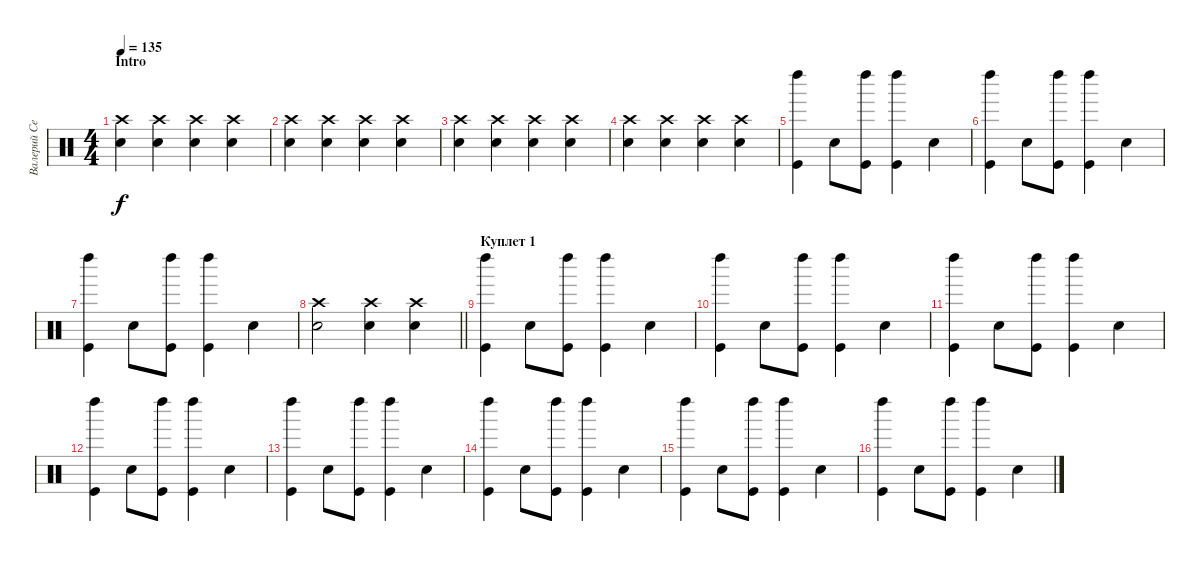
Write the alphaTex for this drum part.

\track ("Валерий Северин" "Валерий Се") {instrument percussion}
\staff {score}
\articulation defaults
\ts (4 4)
\section ("" "Intro")
\tempo 135
\clef neutral
\ks c
("Snare (hit) 2" "Crash high (hit)").4{dy f} ("Snare (hit) 2" "Crash high (hit)").4 ("Snare (hit) 2" "Crash high (hit)").4 ("Snare (hit) 2" "Crash high (hit)").4 |
("Snare (hit) 2" "Crash high (hit)").4 ("Snare (hit) 2" "Crash high (hit)").4 ("Snare (hit) 2" "Crash high (hit)").4 ("Snare (hit) 2" "Crash high (hit)").4 |
("Snare (hit) 2" "Crash high (hit)").4 ("Snare (hit) 2" "Crash high (hit)").4 ("Snare (hit) 2" "Crash high (hit)").4 ("Snare (hit) 2" "Crash high (hit)").4 |
("Snare (hit) 2" "Crash high (hit)").4 ("Snare (hit) 2" "Crash high (hit)").4 ("Snare (hit) 2" "Crash high (hit)").4 ("Snare (hit) 2" "Crash high (hit)").4 |
("Kick (hit)" "Left Maraca (hit)").4 "Snare (hit) 2".8 ("Kick (hit)" "Left Maraca (hit)").8 ("Kick (hit)" "Left Maraca (hit)").4 "Snare (hit) 2".4 |
("Kick (hit)" "Left Maraca (hit)").4 "Snare (hit) 2".8 ("Kick (hit)" "Left Maraca (hit)").8 ("Kick (hit)" "Left Maraca (hit)").4 "Snare (hit) 2".4 |
("Kick (hit)" "Left Maraca (hit)").4 "Snare (hit) 2".8 ("Kick (hit)" "Left Maraca (hit)").8 ("Kick (hit)" "Left Maraca (hit)").4 "Snare (hit) 2".4 |
\barLineRight lightlight
("Snare (hit) 2" "Crash high (hit)").2 ("Snare (hit) 2" "Crash high (hit)").4 ("Snare (hit) 2" "Crash high (hit)").4 |
\section ("" "Куплет 1")
("Kick (hit)" "Left Maraca (hit)").4 "Snare (hit) 2".8 ("Kick (hit)" "Left Maraca (hit)").8 ("Kick (hit)" "Left Maraca (hit)").4 "Snare (hit) 2".4 |
("Kick (hit)" "Left Maraca (hit)").4 "Snare (hit) 2".8 ("Kick (hit)" "Left Maraca (hit)").8 ("Kick (hit)" "Left Maraca (hit)").4 "Snare (hit) 2".4 |
("Kick (hit)" "Left Maraca (hit)").4 "Snare (hit) 2".8 ("Kick (hit)" "Left Maraca (hit)").8 ("Kick (hit)" "Left Maraca (hit)").4 "Snare (hit) 2".4 |
("Kick (hit)" "Left Maraca (hit)").4 "Snare (hit) 2".8 ("Kick (hit)" "Left Maraca (hit)").8 ("Kick (hit)" "Left Maraca (hit)").4 "Snare (hit) 2".4 |
("Kick (hit)" "Left Maraca (hit)").4 "Snare (hit) 2".8 ("Kick (hit)" "Left Maraca (hit)").8 ("Kick (hit)" "Left Maraca (hit)").4 "Snare (hit) 2".4 |
("Kick (hit)" "Left Maraca (hit)").4 "Snare (hit) 2".8 ("Kick (hit)" "Left Maraca (hit)").8 ("Kick (hit)" "Left Maraca (hit)").4 "Snare (hit) 2".4 |
("Kick (hit)" "Left Maraca (hit)").4 "Snare (hit) 2".8 ("Kick (hit)" "Left Maraca (hit)").8 ("Kick (hit)" "Left Maraca (hit)").4 "Snare (hit) 2".4 |
("Kick (hit)" "Left Maraca (hit)").4 "Snare (hit) 2".8 ("Kick (hit)" "Left Maraca (hit)").8 ("Kick (hit)" "Left Maraca (hit)").4 "Snare (hit) 2".4
